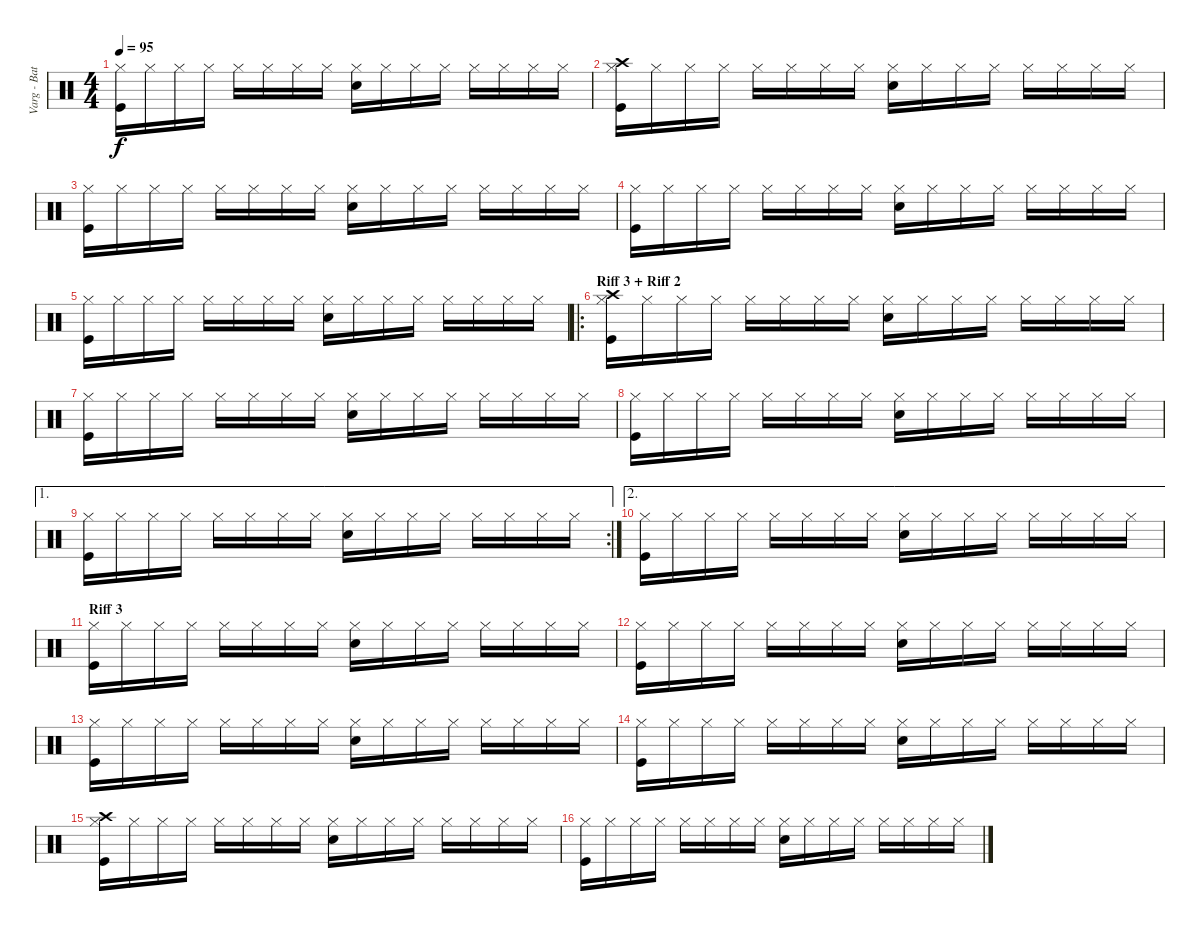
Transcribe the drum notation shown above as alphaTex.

\track ("Varg - Batterie" "Varg - Bat") {instrument percussion}
\staff {score}
\articulation defaults
\ts (4 4)
\tempo 95
\clef neutral
\ks c
("Hi-Hat (closed)" "Kick (hit)").16{dy f} "Hi-Hat (closed)".16 "Hi-Hat (closed)".16 "Hi-Hat (closed)".16 "Hi-Hat (closed)".16 "Hi-Hat (closed)".16 "Hi-Hat (closed)".16 "Hi-Hat (closed)".16 ("Hi-Hat (closed)" "Electric Snare (hit)").16 "Hi-Hat (closed)".16 "Hi-Hat (closed)".16 "Hi-Hat (closed)".16 "Hi-Hat (closed)".16 "Hi-Hat (closed)".16 "Hi-Hat (closed)".16 "Hi-Hat (closed)".16 |
("Hi-Hat (closed)" "Crash high (hit)" "Kick (hit)").16 "Hi-Hat (closed)".16 "Hi-Hat (closed)".16 "Hi-Hat (closed)".16 "Hi-Hat (closed)".16 "Hi-Hat (closed)".16 "Hi-Hat (closed)".16 "Hi-Hat (closed)".16 ("Hi-Hat (closed)" "Electric Snare (hit)").16 "Hi-Hat (closed)".16 "Hi-Hat (closed)".16 "Hi-Hat (closed)".16 "Hi-Hat (closed)".16 "Hi-Hat (closed)".16 "Hi-Hat (closed)".16 "Hi-Hat (closed)".16 |
("Hi-Hat (closed)" "Kick (hit)").16 "Hi-Hat (closed)".16 "Hi-Hat (closed)".16 "Hi-Hat (closed)".16 "Hi-Hat (closed)".16 "Hi-Hat (closed)".16 "Hi-Hat (closed)".16 "Hi-Hat (closed)".16 ("Hi-Hat (closed)" "Electric Snare (hit)").16 "Hi-Hat (closed)".16 "Hi-Hat (closed)".16 "Hi-Hat (closed)".16 "Hi-Hat (closed)".16 "Hi-Hat (closed)".16 "Hi-Hat (closed)".16 "Hi-Hat (closed)".16 |
("Hi-Hat (closed)" "Kick (hit)").16 "Hi-Hat (closed)".16 "Hi-Hat (closed)".16 "Hi-Hat (closed)".16 "Hi-Hat (closed)".16 "Hi-Hat (closed)".16 "Hi-Hat (closed)".16 "Hi-Hat (closed)".16 ("Hi-Hat (closed)" "Electric Snare (hit)").16 "Hi-Hat (closed)".16 "Hi-Hat (closed)".16 "Hi-Hat (closed)".16 "Hi-Hat (closed)".16 "Hi-Hat (closed)".16 "Hi-Hat (closed)".16 "Hi-Hat (closed)".16 |
("Hi-Hat (closed)" "Kick (hit)").16 "Hi-Hat (closed)".16 "Hi-Hat (closed)".16 "Hi-Hat (closed)".16 "Hi-Hat (closed)".16 "Hi-Hat (closed)".16 "Hi-Hat (closed)".16 "Hi-Hat (closed)".16 ("Hi-Hat (closed)" "Electric Snare (hit)").16 "Hi-Hat (closed)".16 "Hi-Hat (closed)".16 "Hi-Hat (closed)".16 "Hi-Hat (closed)".16 "Hi-Hat (closed)".16 "Hi-Hat (closed)".16 "Hi-Hat (closed)".16 |
\ro
\section ("" "Riff 3 + Riff 2")
("Hi-Hat (closed)" "Crash high (hit)" "Kick (hit)").16 "Hi-Hat (closed)".16 "Hi-Hat (closed)".16 "Hi-Hat (closed)".16 "Hi-Hat (closed)".16 "Hi-Hat (closed)".16 "Hi-Hat (closed)".16 "Hi-Hat (closed)".16 ("Hi-Hat (closed)" "Electric Snare (hit)").16 "Hi-Hat (closed)".16 "Hi-Hat (closed)".16 "Hi-Hat (closed)".16 "Hi-Hat (closed)".16 "Hi-Hat (closed)".16 "Hi-Hat (closed)".16 "Hi-Hat (closed)".16 |
("Hi-Hat (closed)" "Kick (hit)").16 "Hi-Hat (closed)".16 "Hi-Hat (closed)".16 "Hi-Hat (closed)".16 "Hi-Hat (closed)".16 "Hi-Hat (closed)".16 "Hi-Hat (closed)".16 "Hi-Hat (closed)".16 ("Hi-Hat (closed)" "Electric Snare (hit)").16 "Hi-Hat (closed)".16 "Hi-Hat (closed)".16 "Hi-Hat (closed)".16 "Hi-Hat (closed)".16 "Hi-Hat (closed)".16 "Hi-Hat (closed)".16 "Hi-Hat (closed)".16 |
("Hi-Hat (closed)" "Kick (hit)").16 "Hi-Hat (closed)".16 "Hi-Hat (closed)".16 "Hi-Hat (closed)".16 "Hi-Hat (closed)".16 "Hi-Hat (closed)".16 "Hi-Hat (closed)".16 "Hi-Hat (closed)".16 ("Hi-Hat (closed)" "Electric Snare (hit)").16 "Hi-Hat (closed)".16 "Hi-Hat (closed)".16 "Hi-Hat (closed)".16 "Hi-Hat (closed)".16 "Hi-Hat (closed)".16 "Hi-Hat (closed)".16 "Hi-Hat (closed)".16 |
\ae 1
\rc 2
("Hi-Hat (closed)" "Kick (hit)").16 "Hi-Hat (closed)".16 "Hi-Hat (closed)".16 "Hi-Hat (closed)".16 "Hi-Hat (closed)".16 "Hi-Hat (closed)".16 "Hi-Hat (closed)".16 "Hi-Hat (closed)".16 ("Hi-Hat (closed)" "Electric Snare (hit)").16 "Hi-Hat (closed)".16 "Hi-Hat (closed)".16 "Hi-Hat (closed)".16 "Hi-Hat (closed)".16 "Hi-Hat (closed)".16 "Hi-Hat (closed)".16 "Hi-Hat (closed)".16 |
\ae 2
("Hi-Hat (closed)" "Kick (hit)").16 "Hi-Hat (closed)".16 "Hi-Hat (closed)".16 "Hi-Hat (closed)".16 "Hi-Hat (closed)".16 "Hi-Hat (closed)".16 "Hi-Hat (closed)".16 "Hi-Hat (closed)".16 ("Hi-Hat (closed)" "Electric Snare (hit)").16 "Hi-Hat (closed)".16 "Hi-Hat (closed)".16 "Hi-Hat (closed)".16 "Hi-Hat (closed)".16 "Hi-Hat (closed)".16 "Hi-Hat (closed)".16 "Hi-Hat (closed)".16 |
\section ("" "Riff 3")
("Hi-Hat (closed)" "Kick (hit)").16 "Hi-Hat (closed)".16 "Hi-Hat (closed)".16 "Hi-Hat (closed)".16 "Hi-Hat (closed)".16 "Hi-Hat (closed)".16 "Hi-Hat (closed)".16 "Hi-Hat (closed)".16 ("Hi-Hat (closed)" "Electric Snare (hit)").16 "Hi-Hat (closed)".16 "Hi-Hat (closed)".16 "Hi-Hat (closed)".16 "Hi-Hat (closed)".16 "Hi-Hat (closed)".16 "Hi-Hat (closed)".16 "Hi-Hat (closed)".16 |
("Hi-Hat (closed)" "Kick (hit)").16 "Hi-Hat (closed)".16 "Hi-Hat (closed)".16 "Hi-Hat (closed)".16 "Hi-Hat (closed)".16 "Hi-Hat (closed)".16 "Hi-Hat (closed)".16 "Hi-Hat (closed)".16 ("Hi-Hat (closed)" "Electric Snare (hit)").16 "Hi-Hat (closed)".16 "Hi-Hat (closed)".16 "Hi-Hat (closed)".16 "Hi-Hat (closed)".16 "Hi-Hat (closed)".16 "Hi-Hat (closed)".16 "Hi-Hat (closed)".16 |
("Hi-Hat (closed)" "Kick (hit)").16 "Hi-Hat (closed)".16 "Hi-Hat (closed)".16 "Hi-Hat (closed)".16 "Hi-Hat (closed)".16 "Hi-Hat (closed)".16 "Hi-Hat (closed)".16 "Hi-Hat (closed)".16 ("Hi-Hat (closed)" "Electric Snare (hit)").16 "Hi-Hat (closed)".16 "Hi-Hat (closed)".16 "Hi-Hat (closed)".16 "Hi-Hat (closed)".16 "Hi-Hat (closed)".16 "Hi-Hat (closed)".16 "Hi-Hat (closed)".16 |
("Hi-Hat (closed)" "Kick (hit)").16 "Hi-Hat (closed)".16 "Hi-Hat (closed)".16 "Hi-Hat (closed)".16 "Hi-Hat (closed)".16 "Hi-Hat (closed)".16 "Hi-Hat (closed)".16 "Hi-Hat (closed)".16 ("Hi-Hat (closed)" "Electric Snare (hit)").16 "Hi-Hat (closed)".16 "Hi-Hat (closed)".16 "Hi-Hat (closed)".16 "Hi-Hat (closed)".16 "Hi-Hat (closed)".16 "Hi-Hat (closed)".16 "Hi-Hat (closed)".16 |
("Hi-Hat (closed)" "Crash high (hit)" "Kick (hit)").16 "Hi-Hat (closed)".16 "Hi-Hat (closed)".16 "Hi-Hat (closed)".16 "Hi-Hat (closed)".16 "Hi-Hat (closed)".16 "Hi-Hat (closed)".16 "Hi-Hat (closed)".16 ("Hi-Hat (closed)" "Electric Snare (hit)").16 "Hi-Hat (closed)".16 "Hi-Hat (closed)".16 "Hi-Hat (closed)".16 "Hi-Hat (closed)".16 "Hi-Hat (closed)".16 "Hi-Hat (closed)".16 "Hi-Hat (closed)".16 |
("Hi-Hat (closed)" "Kick (hit)").16 "Hi-Hat (closed)".16 "Hi-Hat (closed)".16 "Hi-Hat (closed)".16 "Hi-Hat (closed)".16 "Hi-Hat (closed)".16 "Hi-Hat (closed)".16 "Hi-Hat (closed)".16 ("Hi-Hat (closed)" "Electric Snare (hit)").16 "Hi-Hat (closed)".16 "Hi-Hat (closed)".16 "Hi-Hat (closed)".16 "Hi-Hat (closed)".16 "Hi-Hat (closed)".16 "Hi-Hat (closed)".16 "Hi-Hat (closed)".16
